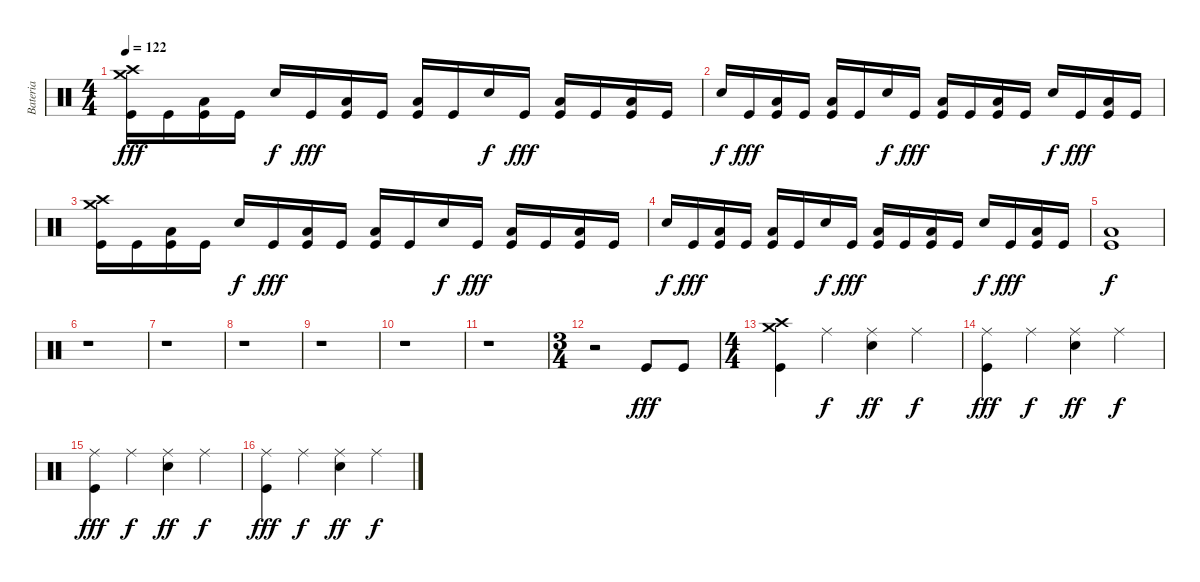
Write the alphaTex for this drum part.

\track ("Bateria" "Bateria") {instrument percussion}
\staff {score}
\articulation defaults
\ts (4 4)
\tempo 122
\clef neutral
\ks c
("Crash high (hit)" "Crash medium (hit)" "Kick (hit)").16{dy fff} "Kick (hit)".16 ("Low Tom (hit)" "Kick (hit)").16 "Kick (hit)".16 "Snare (hit) 2".16{dy f} "Kick (hit)".16{dy fff} ("Low Tom (hit)" "Kick (hit)").16 "Kick (hit)".16 ("Low Tom (hit)" "Kick (hit)").16 "Kick (hit)".16 "Snare (hit) 2".16{dy f} "Kick (hit)".16{dy fff} ("Low Tom (hit)" "Kick (hit)").16 "Kick (hit)".16 ("Low Tom (hit)" "Kick (hit)").16 "Kick (hit)".16 |
"Snare (hit) 2".16{dy f} "Kick (hit)".16{dy fff} ("Low Tom (hit)" "Kick (hit)").16 "Kick (hit)".16 ("Low Tom (hit)" "Kick (hit)").16 "Kick (hit)".16 "Snare (hit) 2".16{dy f} "Kick (hit)".16{dy fff} ("Low Tom (hit)" "Kick (hit)").16 "Kick (hit)".16 ("Low Tom (hit)" "Kick (hit)").16 "Kick (hit)".16 "Snare (hit) 2".16{dy f} "Kick (hit)".16{dy fff} ("Low Tom (hit)" "Kick (hit)").16 "Kick (hit)".16 |
("Crash high (hit)" "Crash medium (hit)" "Kick (hit)").16 "Kick (hit)".16 ("Low Tom (hit)" "Kick (hit)").16 "Kick (hit)".16 "Snare (hit) 2".16{dy f} "Kick (hit)".16{dy fff} ("Low Tom (hit)" "Kick (hit)").16 "Kick (hit)".16 ("Low Tom (hit)" "Kick (hit)").16 "Kick (hit)".16 "Snare (hit) 2".16{dy f} "Kick (hit)".16{dy fff} ("Low Tom (hit)" "Kick (hit)").16 "Kick (hit)".16 ("Low Tom (hit)" "Kick (hit)").16 "Kick (hit)".16 |
"Snare (hit) 2".16{dy f} "Kick (hit)".16{dy fff} ("Low Tom (hit)" "Kick (hit)").16 "Kick (hit)".16 ("Low Tom (hit)" "Kick (hit)").16 "Kick (hit)".16 "Snare (hit) 2".16{dy f} "Kick (hit)".16{dy fff} ("Low Tom (hit)" "Kick (hit)").16 "Kick (hit)".16 ("Low Tom (hit)" "Kick (hit)").16 "Kick (hit)".16 "Snare (hit) 2".16{dy f} "Kick (hit)".16{dy fff} ("Low Tom (hit)" "Kick (hit)").16 "Kick (hit)".16 |
("Low Tom (hit)" "Kick (hit)").1{dy f} |
r.1 |
r.1 |
r.1 |
r.1 |
r.1 |
r.1 |
\ts (3 4)
r.2 "Kick (hit)".8{dy fff} "Kick (hit)".8 |
\ts (4 4)
("Crash high (hit)" "Crash medium (hit)" "Kick (hit)").4 "Ride (middle)".4{dy f} ("Ride (middle)" "Snare (hit) 2").4{dy ff} "Ride (middle)".4{dy f} |
("Ride (middle)" "Kick (hit)").4{dy fff} "Ride (middle)".4{dy f} ("Ride (middle)" "Snare (hit) 2").4{dy ff} "Ride (middle)".4{dy f} |
("Ride (middle)" "Kick (hit)").4{dy fff} "Ride (middle)".4{dy f} ("Ride (middle)" "Snare (hit) 2").4{dy ff} "Ride (middle)".4{dy f} |
("Ride (middle)" "Kick (hit)").4{dy fff} "Ride (middle)".4{dy f} ("Ride (middle)" "Snare (hit) 2").4{dy ff} "Ride (middle)".4{dy f}
